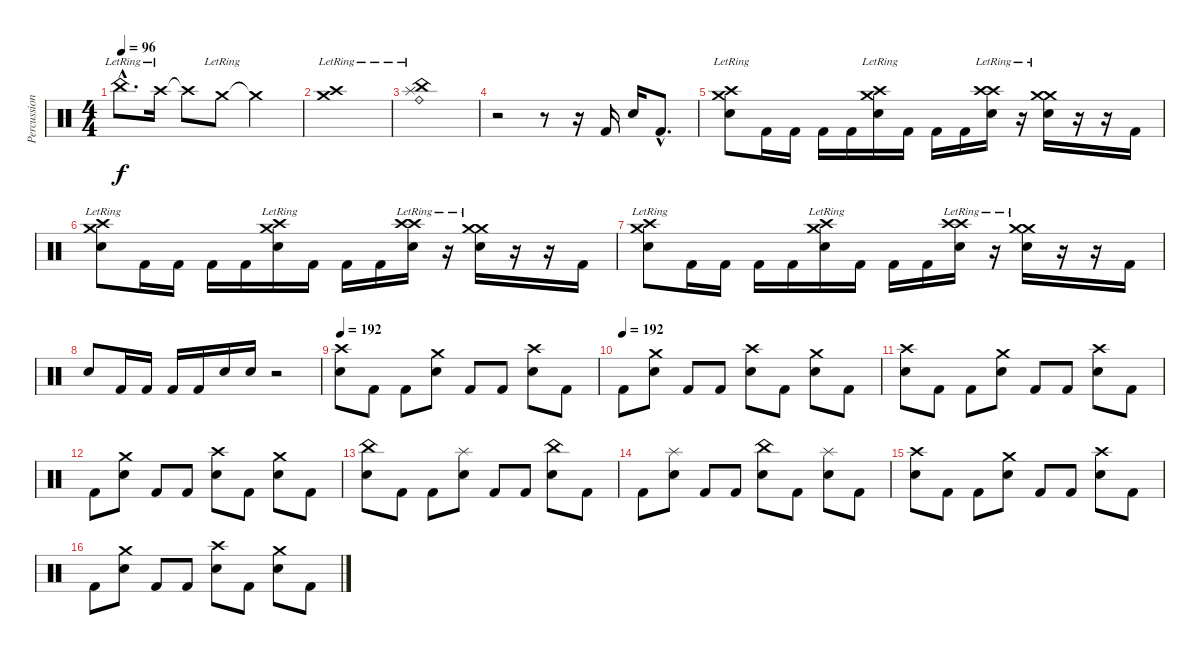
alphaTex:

\track ("Percussion" "Percussion") {instrument percussion}
\staff {score}
\articulation defaults
\ts (4 4)
\tempo 96
\clef neutral
\ks c "China (hit)"{hac lr}.8{d dy f} "Crash high (hit)"{lr}.16 "Crash high (hit)"{t}.8 "Crash medium (hit)"{lr}.8 "Crash medium (hit)"{t}.2
|
("Crash medium (hit)"{lr} "Crash high (hit)"{lr}).1 |
("Splash (hit)"{lr} "Ride (bell)"{lr} "China (hit)"{lr}).1 |
r.2 r.8 r.16 "Kick (hit) 2".16 "Electric Snare (hit)".16 "Kick (hit) 2"{hac}.8{d} |
("Crash medium (hit)"{lr} "Crash high (hit)"{lr} "Electric Snare (hit)").8 "Kick (hit) 2".16 "Kick (hit) 2".16 "Kick (hit) 2".16 "Kick (hit) 2".16 ("Crash medium (hit)"{lr} "Crash high (hit)"{lr} "Electric Snare (hit)").16 "Kick (hit) 2".16 "Kick (hit) 2".16 "Kick (hit) 2".16 ("Crash high (hit)"{lr} "Crash high (hit)"{lr} "Electric Snare (hit)").16 r.16 ("Crash medium (hit)"{lr} "Crash medium (hit)"{lr} "Electric Snare (hit)").16 r.16 r.16 "Kick (hit) 2".16 |
("Crash medium (hit)"{lr} "Crash high (hit)"{lr} "Electric Snare (hit)").8 "Kick (hit) 2".16 "Kick (hit) 2".16 "Kick (hit) 2".16 "Kick (hit) 2".16 ("Crash medium (hit)"{lr} "Crash high (hit)"{lr} "Electric Snare (hit)").16 "Kick (hit) 2".16 "Kick (hit) 2".16 "Kick (hit) 2".16 ("Crash high (hit)"{lr} "Crash high (hit)"{lr} "Electric Snare (hit)").16 r.16 ("Crash medium (hit)"{lr} "Crash medium (hit)"{lr} "Electric Snare (hit)").16 r.16 r.16 "Kick (hit) 2".16 |
("Crash medium (hit)"{lr} "Crash high (hit)"{lr} "Electric Snare (hit)").8 "Kick (hit) 2".16 "Kick (hit) 2".16 "Kick (hit) 2".16 "Kick (hit) 2".16 ("Crash medium (hit)"{lr} "Crash high (hit)"{lr} "Electric Snare (hit)").16 "Kick (hit) 2".16 "Kick (hit) 2".16 "Kick (hit) 2".16 ("Crash high (hit)"{lr} "Crash high (hit)"{lr} "Electric Snare (hit)").16 r.16 ("Crash medium (hit)"{lr} "Crash medium (hit)"{lr} "Electric Snare (hit)").16 r.16 r.16 "Kick (hit) 2".16 |
"Electric Snare (hit)".8 "Kick (hit) 2".16 "Kick (hit) 2".16 "Kick (hit) 2".16 "Kick (hit) 2".16 "Electric Snare (hit)".16 "Electric Snare (hit)".16 r.2 |
\tempo 192
("Crash high (hit)" "Electric Snare (hit)").8 "Kick (hit) 2".8 "Kick (hit) 2".8 ("Crash medium (hit)" "Electric Snare (hit)").8 "Kick (hit) 2".8 "Kick (hit) 2".8 ("Crash high (hit)" "Electric Snare (hit)").8 "Kick (hit) 2".8 |
\tempo (192)
"Kick (hit) 2".8 ("Crash medium (hit)" "Electric Snare (hit)").8 "Kick (hit) 2".8 "Kick (hit) 2".8 ("Crash high (hit)" "Electric Snare (hit)").8 "Kick (hit) 2".8 ("Crash medium (hit)" "Electric Snare (hit)").8 "Kick (hit) 2".8 |
("Crash high (hit)" "Electric Snare (hit)").8 "Kick (hit) 2".8 "Kick (hit) 2".8 ("Crash medium (hit)" "Electric Snare (hit)").8 "Kick (hit) 2".8 "Kick (hit) 2".8 ("Crash high (hit)" "Electric Snare (hit)").8 "Kick (hit) 2".8 |
"Kick (hit) 2".8 ("Crash medium (hit)" "Electric Snare (hit)").8 "Kick (hit) 2".8 "Kick (hit) 2".8 ("Crash high (hit)" "Electric Snare (hit)").8 "Kick (hit) 2".8 ("Crash medium (hit)" "Electric Snare (hit)").8 "Kick (hit) 2".8 |
("China (hit)" "Electric Snare (hit)").8 "Kick (hit) 2".8 "Kick (hit) 2".8 ("Splash (hit)" "Electric Snare (hit)").8 "Kick (hit) 2".8 "Kick (hit) 2".8 ("China (hit)" "Electric Snare (hit)").8 "Kick (hit) 2".8 |
"Kick (hit) 2".8 ("Splash (hit)" "Electric Snare (hit)").8 "Kick (hit) 2".8 "Kick (hit) 2".8 ("China (hit)" "Electric Snare (hit)").8 "Kick (hit) 2".8 ("Splash (hit)" "Electric Snare (hit)").8 "Kick (hit) 2".8 |
("Crash high (hit)" "Electric Snare (hit)").8 "Kick (hit) 2".8 "Kick (hit) 2".8 ("Crash medium (hit)" "Electric Snare (hit)").8 "Kick (hit) 2".8 "Kick (hit) 2".8 ("Crash high (hit)" "Electric Snare (hit)").8 "Kick (hit) 2".8 |
"Kick (hit) 2".8 ("Crash medium (hit)" "Electric Snare (hit)").8 "Kick (hit) 2".8 "Kick (hit) 2".8 ("Crash high (hit)" "Electric Snare (hit)").8 "Kick (hit) 2".8 ("Crash medium (hit)" "Electric Snare (hit)").8 "Kick (hit) 2".8
